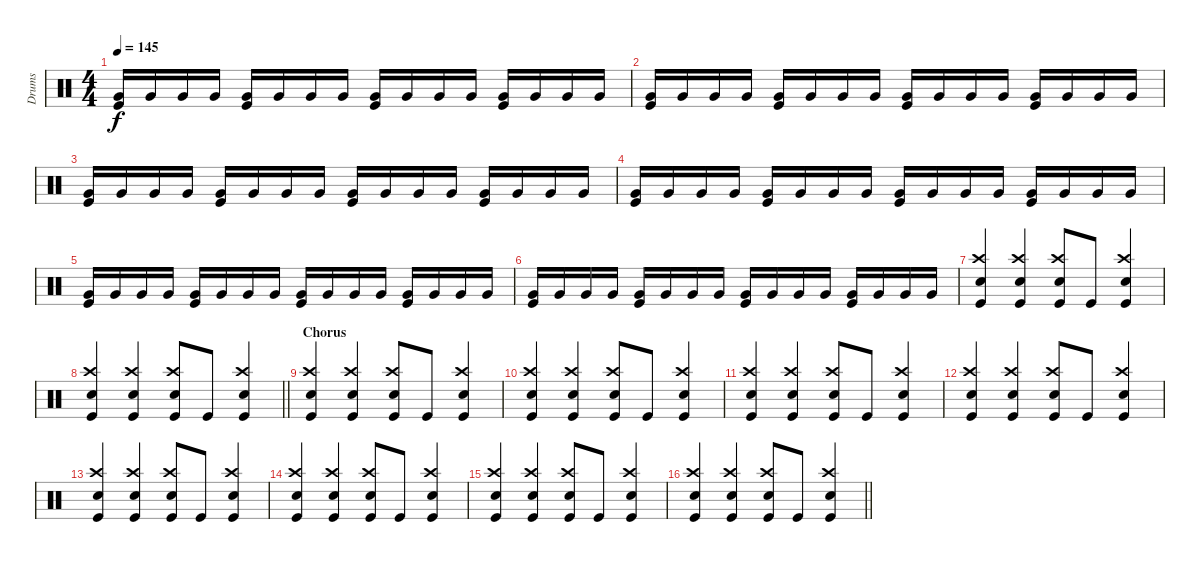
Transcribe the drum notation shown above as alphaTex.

\track ("Drums" "Drums") {instrument percussion}
\staff {score}
\articulation defaults
\ts (4 4)
\tempo 145
\clef neutral
\ks c
("Very Low Tom (hit)" "Kick (hit)").16{dy f} "Very Low Tom (hit)".16 "Very Low Tom (hit)".16 "Very Low Tom (hit)".16 ("Very Low Tom (hit)" "Kick (hit)").16 "Very Low Tom (hit)".16 "Very Low Tom (hit)".16 "Very Low Tom (hit)".16 ("Very Low Tom (hit)" "Kick (hit)").16 "Very Low Tom (hit)".16 "Very Low Tom (hit)".16 "Very Low Tom (hit)".16 ("Very Low Tom (hit)" "Kick (hit)").16 "Very Low Tom (hit)".16 "Very Low Tom (hit)".16 "Very Low Tom (hit)".16 |
("Very Low Tom (hit)" "Kick (hit)").16 "Very Low Tom (hit)".16 "Very Low Tom (hit)".16 "Very Low Tom (hit)".16 ("Very Low Tom (hit)" "Kick (hit)").16 "Very Low Tom (hit)".16 "Very Low Tom (hit)".16 "Very Low Tom (hit)".16 ("Very Low Tom (hit)" "Kick (hit)").16 "Very Low Tom (hit)".16 "Very Low Tom (hit)".16 "Very Low Tom (hit)".16 ("Very Low Tom (hit)" "Kick (hit)").16 "Very Low Tom (hit)".16 "Very Low Tom (hit)".16 "Very Low Tom (hit)".16 |
("Very Low Tom (hit)" "Kick (hit)").16 "Very Low Tom (hit)".16 "Very Low Tom (hit)".16 "Very Low Tom (hit)".16 ("Very Low Tom (hit)" "Kick (hit)").16 "Very Low Tom (hit)".16 "Very Low Tom (hit)".16 "Very Low Tom (hit)".16 ("Very Low Tom (hit)" "Kick (hit)").16 "Very Low Tom (hit)".16 "Very Low Tom (hit)".16 "Very Low Tom (hit)".16 ("Very Low Tom (hit)" "Kick (hit)").16 "Very Low Tom (hit)".16 "Very Low Tom (hit)".16 "Very Low Tom (hit)".16 |
("Very Low Tom (hit)" "Kick (hit)").16 "Very Low Tom (hit)".16 "Very Low Tom (hit)".16 "Very Low Tom (hit)".16 ("Very Low Tom (hit)" "Kick (hit)").16 "Very Low Tom (hit)".16 "Very Low Tom (hit)".16 "Very Low Tom (hit)".16 ("Very Low Tom (hit)" "Kick (hit)").16 "Very Low Tom (hit)".16 "Very Low Tom (hit)".16 "Very Low Tom (hit)".16 ("Very Low Tom (hit)" "Kick (hit)").16 "Very Low Tom (hit)".16 "Very Low Tom (hit)".16 "Very Low Tom (hit)".16 |
("Very Low Tom (hit)" "Kick (hit)").16 "Very Low Tom (hit)".16 "Very Low Tom (hit)".16 "Very Low Tom (hit)".16 ("Very Low Tom (hit)" "Kick (hit)").16 "Very Low Tom (hit)".16 "Very Low Tom (hit)".16 "Very Low Tom (hit)".16 ("Very Low Tom (hit)" "Kick (hit)").16 "Very Low Tom (hit)".16 "Very Low Tom (hit)".16 "Very Low Tom (hit)".16 ("Very Low Tom (hit)" "Kick (hit)").16 "Very Low Tom (hit)".16 "Very Low Tom (hit)".16 "Very Low Tom (hit)".16 |
("Very Low Tom (hit)" "Kick (hit)").16 "Very Low Tom (hit)".16 "Very Low Tom (hit)".16 "Very Low Tom (hit)".16 ("Very Low Tom (hit)" "Kick (hit)").16 "Very Low Tom (hit)".16 "Very Low Tom (hit)".16 "Very Low Tom (hit)".16 ("Very Low Tom (hit)" "Kick (hit)").16 "Very Low Tom (hit)".16 "Very Low Tom (hit)".16 "Very Low Tom (hit)".16 ("Very Low Tom (hit)" "Kick (hit)").16 "Very Low Tom (hit)".16 "Very Low Tom (hit)".16 "Very Low Tom (hit)".16 |
("Crash high (hit)" "Snare (hit) 2" "Kick (hit)").4 ("Crash high (hit)" "Snare (hit) 2" "Kick (hit)").4 ("Crash high (hit)" "Snare (hit) 2" "Kick (hit)").8 "Kick (hit)".8 ("Crash high (hit)" "Snare (hit) 2" "Kick (hit)").4 |
\barLineRight lightlight
("Crash high (hit)" "Snare (hit) 2" "Kick (hit)").4 ("Crash high (hit)" "Snare (hit) 2" "Kick (hit)").4 ("Crash high (hit)" "Snare (hit) 2" "Kick (hit)").8 "Kick (hit)".8 ("Crash high (hit)" "Snare (hit) 2" "Kick (hit)").4 |
\section ("" "Chorus")
("Crash high (hit)" "Snare (hit) 2" "Kick (hit)").4 ("Crash high (hit)" "Snare (hit) 2" "Kick (hit)").4 ("Crash high (hit)" "Snare (hit) 2" "Kick (hit)").8 "Kick (hit)".8 ("Crash high (hit)" "Snare (hit) 2" "Kick (hit)").4 |
("Crash high (hit)" "Snare (hit) 2" "Kick (hit)").4 ("Crash high (hit)" "Snare (hit) 2" "Kick (hit)").4 ("Crash high (hit)" "Snare (hit) 2" "Kick (hit)").8 "Kick (hit)".8 ("Crash high (hit)" "Snare (hit) 2" "Kick (hit)").4 |
("Crash high (hit)" "Snare (hit) 2" "Kick (hit)").4 ("Crash high (hit)" "Snare (hit) 2" "Kick (hit)").4 ("Crash high (hit)" "Snare (hit) 2" "Kick (hit)").8 "Kick (hit)".8 ("Crash high (hit)" "Snare (hit) 2" "Kick (hit)").4 |
("Crash high (hit)" "Snare (hit) 2" "Kick (hit)").4 ("Crash high (hit)" "Snare (hit) 2" "Kick (hit)").4 ("Crash high (hit)" "Snare (hit) 2" "Kick (hit)").8 "Kick (hit)".8 ("Crash high (hit)" "Snare (hit) 2" "Kick (hit)").4 |
("Crash high (hit)" "Snare (hit) 2" "Kick (hit)").4 ("Crash high (hit)" "Snare (hit) 2" "Kick (hit)").4 ("Crash high (hit)" "Snare (hit) 2" "Kick (hit)").8 "Kick (hit)".8 ("Crash high (hit)" "Snare (hit) 2" "Kick (hit)").4 |
("Crash high (hit)" "Snare (hit) 2" "Kick (hit)").4 ("Crash high (hit)" "Snare (hit) 2" "Kick (hit)").4 ("Crash high (hit)" "Snare (hit) 2" "Kick (hit)").8 "Kick (hit)".8 ("Crash high (hit)" "Snare (hit) 2" "Kick (hit)").4 |
("Crash high (hit)" "Snare (hit) 2" "Kick (hit)").4 ("Crash high (hit)" "Snare (hit) 2" "Kick (hit)").4 ("Crash high (hit)" "Snare (hit) 2" "Kick (hit)").8 "Kick (hit)".8 ("Crash high (hit)" "Snare (hit) 2" "Kick (hit)").4 |
\barLineRight lightlight
("Crash high (hit)" "Snare (hit) 2" "Kick (hit)").4 ("Crash high (hit)" "Snare (hit) 2" "Kick (hit)").4 ("Crash high (hit)" "Snare (hit) 2" "Kick (hit)").8 "Kick (hit)".8 ("Crash high (hit)" "Snare (hit) 2" "Kick (hit)").4
